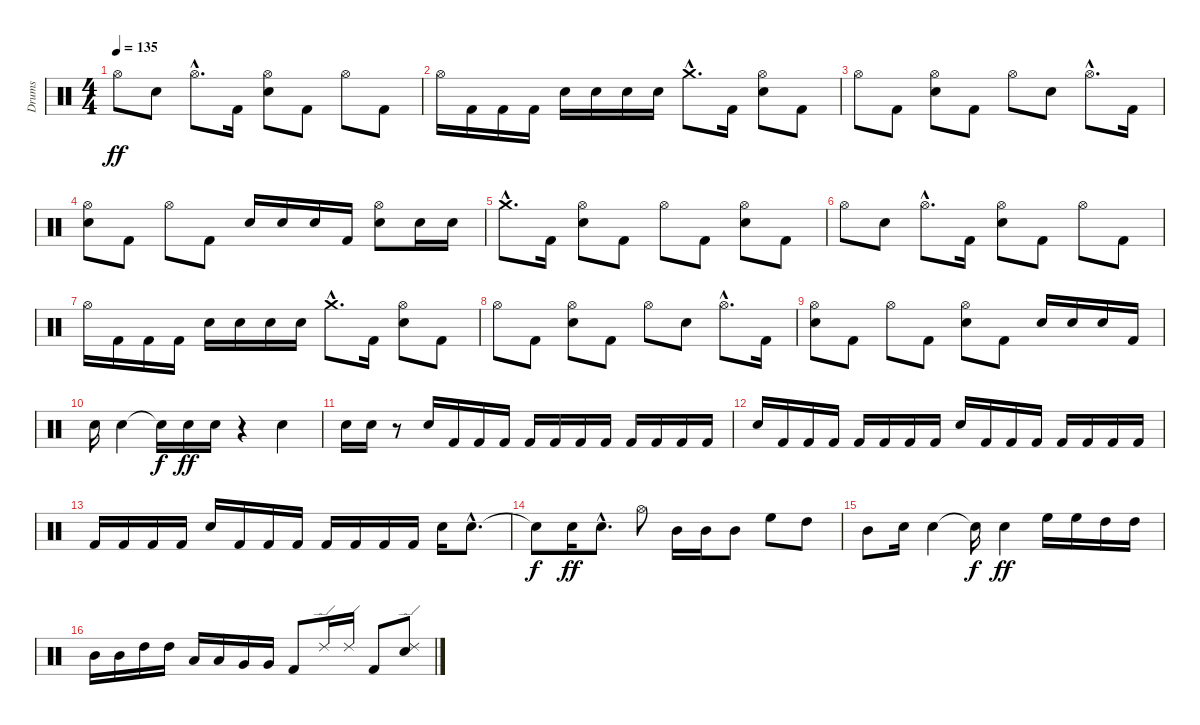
\track ("Drums" "Drums") {instrument percussion}
\staff {score}
\articulation defaults
\ts (4 4)
\tempo 135
\clef neutral
\ks c "Hi-Hat (open)".8{dy ff} "Electric Snare (hit)".8 "Hi-Hat (open)"{hac}.8{d} "Kick (hit) 2".16
("Electric Snare (hit)" "Hi-Hat (open)").8 "Kick (hit) 2".8 "Hi-Hat (open)".8 "Kick (hit) 2".8 |
"Hi-Hat (open)".16 "Kick (hit) 2".16 "Kick (hit) 2".16 "Kick (hit) 2".16 "Electric Snare (hit)".16 "Electric Snare (hit)".16 "Electric Snare (hit)".16 "Electric Snare (hit)".16 "Crash medium (hit)"{hac}.8{d} "Kick (hit) 2".16 ("Electric Snare (hit)" "Hi-Hat (open)").8 "Kick (hit) 2".8 |
"Hi-Hat (open)".8 "Kick (hit) 2".8 ("Electric Snare (hit)" "Hi-Hat (open)").8 "Kick (hit) 2".8 "Hi-Hat (open)".8 "Electric Snare (hit)".8 "Hi-Hat (open)"{hac}.8{d} "Kick (hit) 2".16 |
("Electric Snare (hit)" "Hi-Hat (open)").8 "Kick (hit) 2".8 "Hi-Hat (open)".8 "Kick (hit) 2".8 "Electric Snare (hit)".16 "Electric Snare (hit)".16 "Electric Snare (hit)".16 "Kick (hit) 2".16 ("Electric Snare (hit)" "Hi-Hat (open)").8 "Electric Snare (hit)".16 "Electric Snare (hit)".16 |
"Crash medium (hit)"{hac}.8{d} "Kick (hit) 2".16 ("Electric Snare (hit)" "Hi-Hat (open)").8 "Kick (hit) 2".8 "Hi-Hat (open)".8 "Kick (hit) 2".8 ("Electric Snare (hit)" "Hi-Hat (open)").8 "Kick (hit) 2".8 |
"Hi-Hat (open)".8 "Electric Snare (hit)".8 "Hi-Hat (open)"{hac}.8{d} "Kick (hit) 2".16 ("Electric Snare (hit)" "Hi-Hat (open)").8 "Kick (hit) 2".8 "Hi-Hat (open)".8 "Kick (hit) 2".8 |
"Hi-Hat (open)".16 "Kick (hit) 2".16 "Kick (hit) 2".16 "Kick (hit) 2".16 "Electric Snare (hit)".16 "Electric Snare (hit)".16 "Electric Snare (hit)".16 "Electric Snare (hit)".16 "Crash medium (hit)"{hac}.8{d} "Kick (hit) 2".16 ("Electric Snare (hit)" "Hi-Hat (open)").8 "Kick (hit) 2".8 |
"Hi-Hat (open)".8 "Kick (hit) 2".8 ("Electric Snare (hit)" "Hi-Hat (open)").8 "Kick (hit) 2".8 "Hi-Hat (open)".8 "Electric Snare (hit)".8 "Hi-Hat (open)"{hac}.8{d} "Kick (hit) 2".16 |
("Electric Snare (hit)" "Hi-Hat (open)").8 "Kick (hit) 2".8 "Hi-Hat (open)".8 "Kick (hit) 2".8 ("Electric Snare (hit)" "Hi-Hat (open)").8 "Kick (hit) 2".8 "Electric Snare (hit)".16 "Electric Snare (hit)".16 "Electric Snare (hit)".16 "Kick (hit) 2".16 |
"Electric Snare (hit)".16 "Electric Snare (hit)".4 "Snare (hit)"{t}.16{dy f} "Electric Snare (hit)".16{dy ff} "Electric Snare (hit)".16 r.4 "Electric Snare (hit)".4 |
"Electric Snare (hit)".16 "Electric Snare (hit)".16 r.8 "Electric Snare (hit)".16 "Kick (hit) 2".16 "Kick (hit) 2".16 "Kick (hit) 2".16 "Kick (hit) 2".16 "Kick (hit) 2".16 "Kick (hit) 2".16 "Kick (hit) 2".16 "Kick (hit) 2".16 "Kick (hit) 2".16 "Kick (hit) 2".16 "Kick (hit) 2".16 |
"Electric Snare (hit)".16 "Kick (hit) 2".16 "Kick (hit) 2".16 "Kick (hit) 2".16 "Kick (hit) 2".16 "Kick (hit) 2".16 "Kick (hit) 2".16 "Kick (hit) 2".16 "Electric Snare (hit)".16 "Kick (hit) 2".16 "Kick (hit) 2".16 "Kick (hit) 2".16 "Kick (hit) 2".16 "Kick (hit) 2".16 "Kick (hit) 2".16 "Kick (hit) 2".16 |
"Kick (hit) 2".16 "Kick (hit) 2".16 "Kick (hit) 2".16 "Kick (hit) 2".16 "Electric Snare (hit)".16 "Kick (hit) 2".16 "Kick (hit) 2".16 "Kick (hit) 2".16 "Kick (hit) 2".16 "Kick (hit) 2".16 "Kick (hit) 2".16 "Kick (hit) 2".16 "Electric Snare (hit)".16 "Electric Snare (hit)"{hac}.8{d} |
"Snare (hit)"{t}.8{dy f} "Electric Snare (hit)".16{dy ff} "Electric Snare (hit)"{hac}.8{d} "Hi-Hat (open)".8 "Mid Tom (hit)".16 "Mid Tom (hit)".16 "Mid Tom (hit)".8 "High Floor Tom (hit)".8 "High Tom (hit)".8 |
"Mid Tom (hit)".8 "Electric Snare (hit)".16 "Electric Snare (hit)".4 "Snare (hit)"{t}.16{dy f} "Electric Snare (hit)".4{dy ff} "High Floor Tom (hit)".16 "High Floor Tom (hit)".16 "High Tom (hit)".16 "High Tom (hit)".16 |
"Mid Tom (hit)".16 "Mid Tom (hit)".16 "High Tom (hit)".16 "High Tom (hit)".16 "Low Tom (hit)".16 "Low Tom (hit)".16 "Very Low Tom (hit)".16 "Very Low Tom (hit)".16 "Kick (hit) 2".8 "Ride (edge) 2".16 "Ride (edge) 2".16 "Kick (hit) 2".8 ("Electric Snare (hit)" "Ride (edge) 2").8
